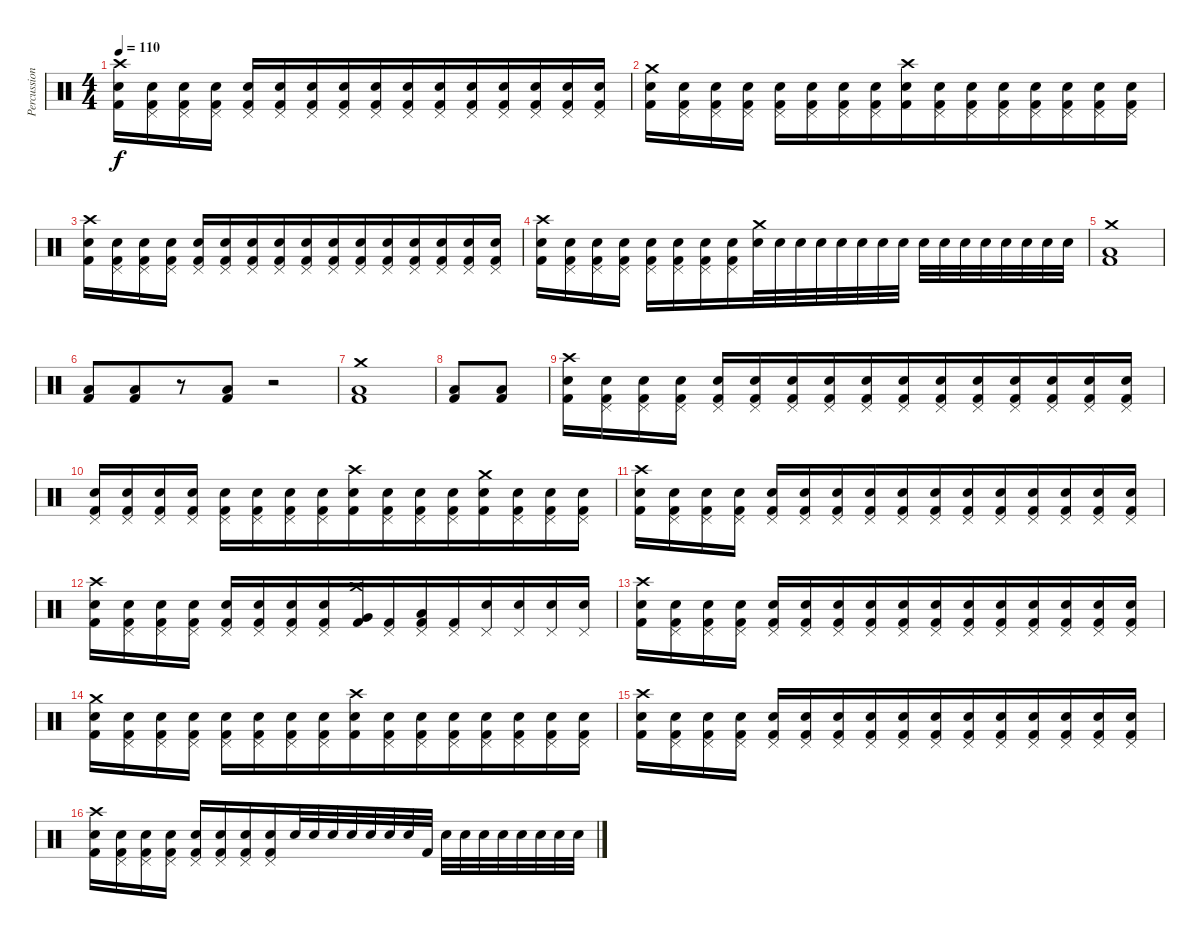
\track ("Percussion" "Percussion") {instrument percussion bank 36}
\staff {score}
\articulation defaults
\ts (4 4)
\tempo 110
\clef neutral
\ks c
("Crash high (hit)" "Electric Snare (hit)" "Kick (hit) 2").16{dy f} ("Pedal Hi-Hat (hit)" "Electric Snare (hit)" "Kick (hit) 2").16 ("Pedal Hi-Hat (hit)" "Electric Snare (hit)" "Kick (hit) 2").16 ("Pedal Hi-Hat (hit)" "Electric Snare (hit)" "Kick (hit) 2").16 ("Pedal Hi-Hat (hit)" "Electric Snare (hit)" "Kick (hit) 2").16 ("Pedal Hi-Hat (hit)" "Electric Snare (hit)" "Kick (hit) 2").16 ("Pedal Hi-Hat (hit)" "Electric Snare (hit)" "Kick (hit) 2").16 ("Pedal Hi-Hat (hit)" "Electric Snare (hit)" "Kick (hit) 2").16{beam merge} ("Pedal Hi-Hat (hit)" "Electric Snare (hit)" "Kick (hit) 2").16{beam merge} ("Pedal Hi-Hat (hit)" "Electric Snare (hit)" "Kick (hit) 2").16{beam merge} ("Pedal Hi-Hat (hit)" "Electric Snare (hit)" "Kick (hit) 2").16 ("Pedal Hi-Hat (hit)" "Electric Snare (hit)" "Kick (hit) 2").16{beam merge} ("Pedal Hi-Hat (hit)" "Electric Snare (hit)" "Kick (hit) 2").16{beam merge} ("Pedal Hi-Hat (hit)" "Electric Snare (hit)" "Kick (hit) 2").16{beam merge} ("Pedal Hi-Hat (hit)" "Electric Snare (hit)" "Kick (hit) 2").16 ("Pedal Hi-Hat (hit)" "Electric Snare (hit)" "Kick (hit) 2").16 |
("Crash medium (hit)" "Electric Snare (hit)" "Kick (hit) 2").16 ("Pedal Hi-Hat (hit)" "Electric Snare (hit)" "Kick (hit) 2").16 ("Pedal Hi-Hat (hit)" "Electric Snare (hit)" "Kick (hit) 2").16 ("Pedal Hi-Hat (hit)" "Electric Snare (hit)" "Kick (hit) 2").16 ("Pedal Hi-Hat (hit)" "Electric Snare (hit)" "Kick (hit) 2").16 ("Pedal Hi-Hat (hit)" "Electric Snare (hit)" "Kick (hit) 2").16 ("Pedal Hi-Hat (hit)" "Electric Snare (hit)" "Kick (hit) 2").16 ("Pedal Hi-Hat (hit)" "Electric Snare (hit)" "Kick (hit) 2").16{beam merge} ("Crash high (hit)" "Electric Snare (hit)" "Kick (hit) 2").16{beam merge} ("Pedal Hi-Hat (hit)" "Electric Snare (hit)" "Kick (hit) 2").16{beam merge} ("Pedal Hi-Hat (hit)" "Electric Snare (hit)" "Kick (hit) 2").16 ("Pedal Hi-Hat (hit)" "Electric Snare (hit)" "Kick (hit) 2").16{beam merge} ("Pedal Hi-Hat (hit)" "Electric Snare (hit)" "Kick (hit) 2").16{beam merge} ("Pedal Hi-Hat (hit)" "Electric Snare (hit)" "Kick (hit) 2").16{beam merge} ("Pedal Hi-Hat (hit)" "Electric Snare (hit)" "Kick (hit) 2").16 ("Pedal Hi-Hat (hit)" "Electric Snare (hit)" "Kick (hit) 2").16 |
("Crash high (hit)" "Electric Snare (hit)" "Kick (hit) 2").16 ("Pedal Hi-Hat (hit)" "Electric Snare (hit)" "Kick (hit) 2").16 ("Pedal Hi-Hat (hit)" "Electric Snare (hit)" "Kick (hit) 2").16 ("Pedal Hi-Hat (hit)" "Electric Snare (hit)" "Kick (hit) 2").16 ("Pedal Hi-Hat (hit)" "Electric Snare (hit)" "Kick (hit) 2").16 ("Pedal Hi-Hat (hit)" "Electric Snare (hit)" "Kick (hit) 2").16 ("Pedal Hi-Hat (hit)" "Electric Snare (hit)" "Kick (hit) 2").16 ("Pedal Hi-Hat (hit)" "Electric Snare (hit)" "Kick (hit) 2").16{beam merge} ("Pedal Hi-Hat (hit)" "Electric Snare (hit)" "Kick (hit) 2").16{beam merge} ("Pedal Hi-Hat (hit)" "Electric Snare (hit)" "Kick (hit) 2").16{beam merge} ("Pedal Hi-Hat (hit)" "Electric Snare (hit)" "Kick (hit) 2").16 ("Pedal Hi-Hat (hit)" "Electric Snare (hit)" "Kick (hit) 2").16{beam merge} ("Pedal Hi-Hat (hit)" "Electric Snare (hit)" "Kick (hit) 2").16{beam merge} ("Pedal Hi-Hat (hit)" "Electric Snare (hit)" "Kick (hit) 2").16{beam merge} ("Pedal Hi-Hat (hit)" "Electric Snare (hit)" "Kick (hit) 2").16 ("Pedal Hi-Hat (hit)" "Electric Snare (hit)" "Kick (hit) 2").16 |
("Crash high (hit)" "Electric Snare (hit)" "Kick (hit) 2").16 ("Pedal Hi-Hat (hit)" "Electric Snare (hit)" "Kick (hit) 2").16 ("Pedal Hi-Hat (hit)" "Electric Snare (hit)" "Kick (hit) 2").16 ("Pedal Hi-Hat (hit)" "Electric Snare (hit)" "Kick (hit) 2").16 ("Pedal Hi-Hat (hit)" "Electric Snare (hit)" "Kick (hit) 2").16 ("Pedal Hi-Hat (hit)" "Electric Snare (hit)" "Kick (hit) 2").16 ("Pedal Hi-Hat (hit)" "Electric Snare (hit)" "Kick (hit) 2").16 ("Pedal Hi-Hat (hit)" "Electric Snare (hit)" "Kick (hit) 2").16{beam merge} ("Crash medium (hit)" "Electric Snare (hit)").32{beam merge} "Electric Snare (hit)".32{beam merge} "Electric Snare (hit)".32 "Electric Snare (hit)".32{beam merge} "Electric Snare (hit)".32{beam merge} "Electric Snare (hit)".32{beam merge} "Electric Snare (hit)".32 "Electric Snare (hit)".32 "Electric Snare (hit)".32 "Electric Snare (hit)".32 "Electric Snare (hit)".32 "Electric Snare (hit)".32 "Electric Snare (hit)".32 "Electric Snare (hit)".32{beam merge} "Electric Snare (hit)".32 "Electric Snare (hit)".32 |
("Crash medium (hit)" "Low Floor Tom (hit)" "Kick (hit) 2").1 |
("Low Floor Tom (hit)" "Kick (hit) 2").8 ("Low Floor Tom (hit)" "Kick (hit) 2").8{beam merge} r.8 ("Low Floor Tom (hit)" "Kick (hit) 2").8 r.2 |
("Crash medium (hit)" "Low Floor Tom (hit)" "Kick (hit) 2").1 |
("Low Floor Tom (hit)" "Kick (hit) 2").8 ("Low Floor Tom (hit)" "Kick (hit) 2").8 |
("Crash high (hit)" "Electric Snare (hit)" "Kick (hit) 2").16 ("Pedal Hi-Hat (hit)" "Electric Snare (hit)" "Kick (hit) 2").16 ("Pedal Hi-Hat (hit)" "Electric Snare (hit)" "Kick (hit) 2").16 ("Pedal Hi-Hat (hit)" "Electric Snare (hit)" "Kick (hit) 2").16 ("Pedal Hi-Hat (hit)" "Electric Snare (hit)" "Kick (hit) 2").16 ("Pedal Hi-Hat (hit)" "Electric Snare (hit)" "Kick (hit) 2").16 ("Pedal Hi-Hat (hit)" "Electric Snare (hit)" "Kick (hit) 2").16 ("Pedal Hi-Hat (hit)" "Electric Snare (hit)" "Kick (hit) 2").16{beam merge} ("Pedal Hi-Hat (hit)" "Electric Snare (hit)" "Kick (hit) 2").16{beam merge} ("Pedal Hi-Hat (hit)" "Electric Snare (hit)" "Kick (hit) 2").16{beam merge} ("Pedal Hi-Hat (hit)" "Electric Snare (hit)" "Kick (hit) 2").16 ("Pedal Hi-Hat (hit)" "Electric Snare (hit)" "Kick (hit) 2").16{beam merge} ("Pedal Hi-Hat (hit)" "Electric Snare (hit)" "Kick (hit) 2").16{beam merge} ("Pedal Hi-Hat (hit)" "Electric Snare (hit)" "Kick (hit) 2").16{beam merge} ("Pedal Hi-Hat (hit)" "Electric Snare (hit)" "Kick (hit) 2").16 ("Pedal Hi-Hat (hit)" "Electric Snare (hit)" "Kick (hit) 2").16 |
("Pedal Hi-Hat (hit)" "Electric Snare (hit)" "Kick (hit) 2").16 ("Pedal Hi-Hat (hit)" "Electric Snare (hit)" "Kick (hit) 2").16 ("Pedal Hi-Hat (hit)" "Electric Snare (hit)" "Kick (hit) 2").16 ("Pedal Hi-Hat (hit)" "Electric Snare (hit)" "Kick (hit) 2").16 ("Pedal Hi-Hat (hit)" "Electric Snare (hit)" "Kick (hit) 2").16 ("Pedal Hi-Hat (hit)" "Electric Snare (hit)" "Kick (hit) 2").16 ("Pedal Hi-Hat (hit)" "Electric Snare (hit)" "Kick (hit) 2").16 ("Pedal Hi-Hat (hit)" "Electric Snare (hit)" "Kick (hit) 2").16{beam merge} ("Crash high (hit)" "Electric Snare (hit)" "Kick (hit) 2").16{beam merge} ("Pedal Hi-Hat (hit)" "Electric Snare (hit)" "Kick (hit) 2").16{beam merge} ("Pedal Hi-Hat (hit)" "Electric Snare (hit)" "Kick (hit) 2").16 ("Pedal Hi-Hat (hit)" "Electric Snare (hit)" "Kick (hit) 2").16{beam merge} ("Crash medium (hit)" "Electric Snare (hit)" "Kick (hit) 2").16{beam merge} ("Pedal Hi-Hat (hit)" "Electric Snare (hit)" "Kick (hit) 2").16{beam merge} ("Pedal Hi-Hat (hit)" "Electric Snare (hit)" "Kick (hit) 2").16 ("Pedal Hi-Hat (hit)" "Electric Snare (hit)" "Kick (hit) 2").16 |
("Crash high (hit)" "Electric Snare (hit)" "Kick (hit) 2").16 ("Pedal Hi-Hat (hit)" "Electric Snare (hit)" "Kick (hit) 2").16 ("Pedal Hi-Hat (hit)" "Electric Snare (hit)" "Kick (hit) 2").16 ("Pedal Hi-Hat (hit)" "Electric Snare (hit)" "Kick (hit) 2").16 ("Pedal Hi-Hat (hit)" "Electric Snare (hit)" "Kick (hit) 2").16 ("Pedal Hi-Hat (hit)" "Electric Snare (hit)" "Kick (hit) 2").16 ("Pedal Hi-Hat (hit)" "Electric Snare (hit)" "Kick (hit) 2").16 ("Pedal Hi-Hat (hit)" "Electric Snare (hit)" "Kick (hit) 2").16{beam merge} ("Pedal Hi-Hat (hit)" "Electric Snare (hit)" "Kick (hit) 2").16{beam merge} ("Pedal Hi-Hat (hit)" "Electric Snare (hit)" "Kick (hit) 2").16{beam merge} ("Pedal Hi-Hat (hit)" "Electric Snare (hit)" "Kick (hit) 2").16 ("Pedal Hi-Hat (hit)" "Electric Snare (hit)" "Kick (hit) 2").16{beam merge} ("Pedal Hi-Hat (hit)" "Electric Snare (hit)" "Kick (hit) 2").16{beam merge} ("Pedal Hi-Hat (hit)" "Electric Snare (hit)" "Kick (hit) 2").16{beam merge} ("Pedal Hi-Hat (hit)" "Electric Snare (hit)" "Kick (hit) 2").16 ("Pedal Hi-Hat (hit)" "Electric Snare (hit)" "Kick (hit) 2").16 |
("Crash high (hit)" "Electric Snare (hit)" "Kick (hit) 2").16 ("Pedal Hi-Hat (hit)" "Electric Snare (hit)" "Kick (hit) 2").16 ("Pedal Hi-Hat (hit)" "Electric Snare (hit)" "Kick (hit) 2").16 ("Pedal Hi-Hat (hit)" "Electric Snare (hit)" "Kick (hit) 2").16 ("Pedal Hi-Hat (hit)" "Electric Snare (hit)" "Kick (hit) 2").16 ("Pedal Hi-Hat (hit)" "Electric Snare (hit)" "Kick (hit) 2").16 ("Pedal Hi-Hat (hit)" "Electric Snare (hit)" "Kick (hit) 2").16 ("Pedal Hi-Hat (hit)" "Electric Snare (hit)" "Kick (hit) 2").16{beam merge} ("Crash medium (hit)" "Very Low Tom (hit)" "Kick (hit) 2").16{beam merge} ("Pedal Hi-Hat (hit)" "Kick (hit) 2").16{beam merge} ("Pedal Hi-Hat (hit)" "Low Tom (hit)" "Kick (hit) 2").16 ("Pedal Hi-Hat (hit)" "Kick (hit) 2").16{beam merge} ("Pedal Hi-Hat (hit)" "Electric Snare (hit)").16{beam merge} ("Pedal Hi-Hat (hit)" "Electric Snare (hit)").16{beam merge} ("Pedal Hi-Hat (hit)" "Electric Snare (hit)").16 ("Pedal Hi-Hat (hit)" "Electric Snare (hit)").16 |
("Crash high (hit)" "Electric Snare (hit)" "Kick (hit) 2").16 ("Pedal Hi-Hat (hit)" "Electric Snare (hit)" "Kick (hit) 2").16 ("Pedal Hi-Hat (hit)" "Electric Snare (hit)" "Kick (hit) 2").16 ("Pedal Hi-Hat (hit)" "Electric Snare (hit)" "Kick (hit) 2").16 ("Pedal Hi-Hat (hit)" "Electric Snare (hit)" "Kick (hit) 2").16 ("Pedal Hi-Hat (hit)" "Electric Snare (hit)" "Kick (hit) 2").16 ("Pedal Hi-Hat (hit)" "Electric Snare (hit)" "Kick (hit) 2").16 ("Pedal Hi-Hat (hit)" "Electric Snare (hit)" "Kick (hit) 2").16{beam merge} ("Pedal Hi-Hat (hit)" "Electric Snare (hit)" "Kick (hit) 2").16{beam merge} ("Pedal Hi-Hat (hit)" "Electric Snare (hit)" "Kick (hit) 2").16{beam merge} ("Pedal Hi-Hat (hit)" "Electric Snare (hit)" "Kick (hit) 2").16 ("Pedal Hi-Hat (hit)" "Electric Snare (hit)" "Kick (hit) 2").16{beam merge} ("Pedal Hi-Hat (hit)" "Electric Snare (hit)" "Kick (hit) 2").16{beam merge} ("Pedal Hi-Hat (hit)" "Electric Snare (hit)" "Kick (hit) 2").16{beam merge} ("Pedal Hi-Hat (hit)" "Electric Snare (hit)" "Kick (hit) 2").16 ("Pedal Hi-Hat (hit)" "Electric Snare (hit)" "Kick (hit) 2").16 |
("Crash medium (hit)" "Electric Snare (hit)" "Kick (hit) 2").16 ("Pedal Hi-Hat (hit)" "Electric Snare (hit)" "Kick (hit) 2").16 ("Pedal Hi-Hat (hit)" "Electric Snare (hit)" "Kick (hit) 2").16 ("Pedal Hi-Hat (hit)" "Electric Snare (hit)" "Kick (hit) 2").16 ("Pedal Hi-Hat (hit)" "Electric Snare (hit)" "Kick (hit) 2").16 ("Pedal Hi-Hat (hit)" "Electric Snare (hit)" "Kick (hit) 2").16 ("Pedal Hi-Hat (hit)" "Electric Snare (hit)" "Kick (hit) 2").16 ("Pedal Hi-Hat (hit)" "Electric Snare (hit)" "Kick (hit) 2").16{beam merge} ("Crash high (hit)" "Electric Snare (hit)" "Kick (hit) 2").16{beam merge} ("Pedal Hi-Hat (hit)" "Electric Snare (hit)" "Kick (hit) 2").16{beam merge} ("Pedal Hi-Hat (hit)" "Electric Snare (hit)" "Kick (hit) 2").16 ("Pedal Hi-Hat (hit)" "Electric Snare (hit)" "Kick (hit) 2").16{beam merge} ("Pedal Hi-Hat (hit)" "Electric Snare (hit)" "Kick (hit) 2").16{beam merge} ("Pedal Hi-Hat (hit)" "Electric Snare (hit)" "Kick (hit) 2").16{beam merge} ("Pedal Hi-Hat (hit)" "Electric Snare (hit)" "Kick (hit) 2").16 ("Pedal Hi-Hat (hit)" "Electric Snare (hit)" "Kick (hit) 2").16 |
("Crash high (hit)" "Electric Snare (hit)" "Kick (hit) 2").16 ("Pedal Hi-Hat (hit)" "Electric Snare (hit)" "Kick (hit) 2").16 ("Pedal Hi-Hat (hit)" "Electric Snare (hit)" "Kick (hit) 2").16 ("Pedal Hi-Hat (hit)" "Electric Snare (hit)" "Kick (hit) 2").16 ("Pedal Hi-Hat (hit)" "Electric Snare (hit)" "Kick (hit) 2").16 ("Pedal Hi-Hat (hit)" "Electric Snare (hit)" "Kick (hit) 2").16 ("Pedal Hi-Hat (hit)" "Electric Snare (hit)" "Kick (hit) 2").16 ("Pedal Hi-Hat (hit)" "Electric Snare (hit)" "Kick (hit) 2").16{beam merge} ("Pedal Hi-Hat (hit)" "Electric Snare (hit)" "Kick (hit) 2").16{beam merge} ("Pedal Hi-Hat (hit)" "Electric Snare (hit)" "Kick (hit) 2").16{beam merge} ("Pedal Hi-Hat (hit)" "Electric Snare (hit)" "Kick (hit) 2").16 ("Pedal Hi-Hat (hit)" "Electric Snare (hit)" "Kick (hit) 2").16{beam merge} ("Pedal Hi-Hat (hit)" "Electric Snare (hit)" "Kick (hit) 2").16{beam merge} ("Pedal Hi-Hat (hit)" "Electric Snare (hit)" "Kick (hit) 2").16{beam merge} ("Pedal Hi-Hat (hit)" "Electric Snare (hit)" "Kick (hit) 2").16 ("Pedal Hi-Hat (hit)" "Electric Snare (hit)" "Kick (hit) 2").16 |
("Crash high (hit)" "Electric Snare (hit)" "Kick (hit) 2").16 ("Pedal Hi-Hat (hit)" "Electric Snare (hit)" "Kick (hit) 2").16 ("Pedal Hi-Hat (hit)" "Electric Snare (hit)" "Kick (hit) 2").16 ("Pedal Hi-Hat (hit)" "Electric Snare (hit)" "Kick (hit) 2").16 ("Pedal Hi-Hat (hit)" "Electric Snare (hit)" "Kick (hit) 2").16 ("Pedal Hi-Hat (hit)" "Electric Snare (hit)" "Kick (hit) 2").16 ("Pedal Hi-Hat (hit)" "Electric Snare (hit)" "Kick (hit) 2").16 ("Pedal Hi-Hat (hit)" "Electric Snare (hit)" "Kick (hit) 2").16{beam merge} "Electric Snare (hit)".32{beam merge} "Electric Snare (hit)".32{beam merge} "Electric Snare (hit)".32 "Electric Snare (hit)".32{beam merge} "Electric Snare (hit)".32{beam merge} "Electric Snare (hit)".32{beam merge} "Electric Snare (hit)".32 "Kick (hit) 2".32 "Electric Snare (hit)".32{beam merge} "Electric Snare (hit)".32{beam merge} "Electric Snare (hit)".32 "Electric Snare (hit)".32{beam merge} "Electric Snare (hit)".32 "Electric Snare (hit)".32 "Electric Snare (hit)".32{beam merge} "Electric Snare (hit)".32
